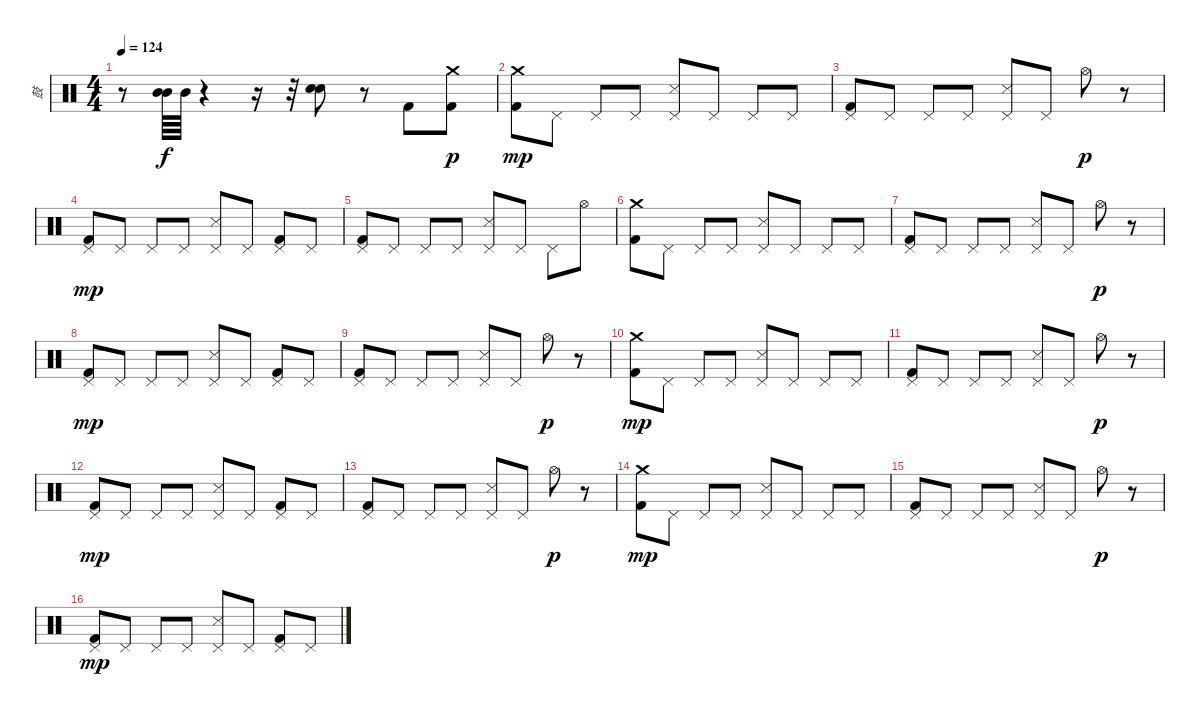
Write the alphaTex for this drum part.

\track ("鼓" "鼓") {instrument percussion}
\staff {score}
\articulation defaults
\ts (4 4)
\tempo 124
\clef neutral
\ks c
r.8{dy mf} ("Mid Tom (hit)" "Mid Tom (hit)").64{dy f} "Mid Tom (hit)".64 r.4 r.16 r.32 ("Electric Snare (hit)" "Electric Snare (hit)").8 r.8 "Kick (hit) 2".8 ("Kick (hit) 2" "Crash medium (hit)").8{dy p} |
("Kick (hit) 2" "Crash medium (hit)").8{dy mp} "Pedal Hi-Hat (hit)".8 "Pedal Hi-Hat (hit)".8 "Pedal Hi-Hat (hit)".8 ("Snare (side stick) 3" "Pedal Hi-Hat (hit)").8 "Pedal Hi-Hat (hit)".8 "Pedal Hi-Hat (hit)".8 "Pedal Hi-Hat (hit)".8 |
("Kick (hit) 2" "Pedal Hi-Hat (hit)").8 "Pedal Hi-Hat (hit)".8 "Pedal Hi-Hat (hit)".8 "Pedal Hi-Hat (hit)".8 ("Snare (side stick) 3" "Pedal Hi-Hat (hit)").8 "Pedal Hi-Hat (hit)".8 "Hi-Hat (open)".8{dy p} r.8 |
("Kick (hit) 2" "Pedal Hi-Hat (hit)").8{dy mp} "Pedal Hi-Hat (hit)".8 "Pedal Hi-Hat (hit)".8 "Pedal Hi-Hat (hit)".8 ("Snare (side stick) 3" "Pedal Hi-Hat (hit)").8 "Pedal Hi-Hat (hit)".8 ("Kick (hit) 2" "Pedal Hi-Hat (hit)").8 "Pedal Hi-Hat (hit)".8 |
("Kick (hit) 2" "Pedal Hi-Hat (hit)").8 "Pedal Hi-Hat (hit)".8 "Pedal Hi-Hat (hit)".8 "Pedal Hi-Hat (hit)".8 ("Snare (side stick) 3" "Pedal Hi-Hat (hit)").8 "Pedal Hi-Hat (hit)".8 "Pedal Hi-Hat (hit)".8 "Hi-Hat (open)".8 |
("Kick (hit) 2" "Crash medium (hit)").8 "Pedal Hi-Hat (hit)".8 "Pedal Hi-Hat (hit)".8 "Pedal Hi-Hat (hit)".8 ("Snare (side stick) 3" "Pedal Hi-Hat (hit)").8 "Pedal Hi-Hat (hit)".8 "Pedal Hi-Hat (hit)".8 "Pedal Hi-Hat (hit)".8 |
("Kick (hit) 2" "Pedal Hi-Hat (hit)").8 "Pedal Hi-Hat (hit)".8 "Pedal Hi-Hat (hit)".8 "Pedal Hi-Hat (hit)".8 ("Snare (side stick) 3" "Pedal Hi-Hat (hit)").8 "Pedal Hi-Hat (hit)".8 "Hi-Hat (open)".8{dy p} r.8 |
("Kick (hit) 2" "Pedal Hi-Hat (hit)").8{dy mp} "Pedal Hi-Hat (hit)".8 "Pedal Hi-Hat (hit)".8 "Pedal Hi-Hat (hit)".8 ("Snare (side stick) 3" "Pedal Hi-Hat (hit)").8 "Pedal Hi-Hat (hit)".8 ("Kick (hit) 2" "Pedal Hi-Hat (hit)").8 "Pedal Hi-Hat (hit)".8 |
("Kick (hit) 2" "Pedal Hi-Hat (hit)").8 "Pedal Hi-Hat (hit)".8 "Pedal Hi-Hat (hit)".8 "Pedal Hi-Hat (hit)".8 ("Snare (side stick) 3" "Pedal Hi-Hat (hit)").8 "Pedal Hi-Hat (hit)".8 "Hi-Hat (open)".8{dy p} r.8 |
("Kick (hit) 2" "Crash medium (hit)").8{dy mp} "Pedal Hi-Hat (hit)".8 "Pedal Hi-Hat (hit)".8 "Pedal Hi-Hat (hit)".8 ("Snare (side stick) 3" "Pedal Hi-Hat (hit)").8 "Pedal Hi-Hat (hit)".8 "Pedal Hi-Hat (hit)".8 "Pedal Hi-Hat (hit)".8 |
("Kick (hit) 2" "Pedal Hi-Hat (hit)").8 "Pedal Hi-Hat (hit)".8 "Pedal Hi-Hat (hit)".8 "Pedal Hi-Hat (hit)".8 ("Snare (side stick) 3" "Pedal Hi-Hat (hit)").8 "Pedal Hi-Hat (hit)".8 "Hi-Hat (open)".8{dy p} r.8 |
("Kick (hit) 2" "Pedal Hi-Hat (hit)").8{dy mp} "Pedal Hi-Hat (hit)".8 "Pedal Hi-Hat (hit)".8 "Pedal Hi-Hat (hit)".8 ("Snare (side stick) 3" "Pedal Hi-Hat (hit)").8 "Pedal Hi-Hat (hit)".8 ("Kick (hit) 2" "Pedal Hi-Hat (hit)").8 "Pedal Hi-Hat (hit)".8 |
("Kick (hit) 2" "Pedal Hi-Hat (hit)").8 "Pedal Hi-Hat (hit)".8 "Pedal Hi-Hat (hit)".8 "Pedal Hi-Hat (hit)".8 ("Snare (side stick) 3" "Pedal Hi-Hat (hit)").8 "Pedal Hi-Hat (hit)".8 "Hi-Hat (open)".8{dy p} r.8 |
("Kick (hit) 2" "Crash medium (hit)").8{dy mp} "Pedal Hi-Hat (hit)".8 "Pedal Hi-Hat (hit)".8 "Pedal Hi-Hat (hit)".8 ("Snare (side stick) 3" "Pedal Hi-Hat (hit)").8 "Pedal Hi-Hat (hit)".8 "Pedal Hi-Hat (hit)".8 "Pedal Hi-Hat (hit)".8 |
("Kick (hit) 2" "Pedal Hi-Hat (hit)").8 "Pedal Hi-Hat (hit)".8 "Pedal Hi-Hat (hit)".8 "Pedal Hi-Hat (hit)".8 ("Snare (side stick) 3" "Pedal Hi-Hat (hit)").8 "Pedal Hi-Hat (hit)".8 "Hi-Hat (open)".8{dy p} r.8 |
("Kick (hit) 2" "Pedal Hi-Hat (hit)").8{dy mp} "Pedal Hi-Hat (hit)".8 "Pedal Hi-Hat (hit)".8 "Pedal Hi-Hat (hit)".8 ("Snare (side stick) 3" "Pedal Hi-Hat (hit)").8 "Pedal Hi-Hat (hit)".8 ("Kick (hit) 2" "Pedal Hi-Hat (hit)").8 "Pedal Hi-Hat (hit)".8
